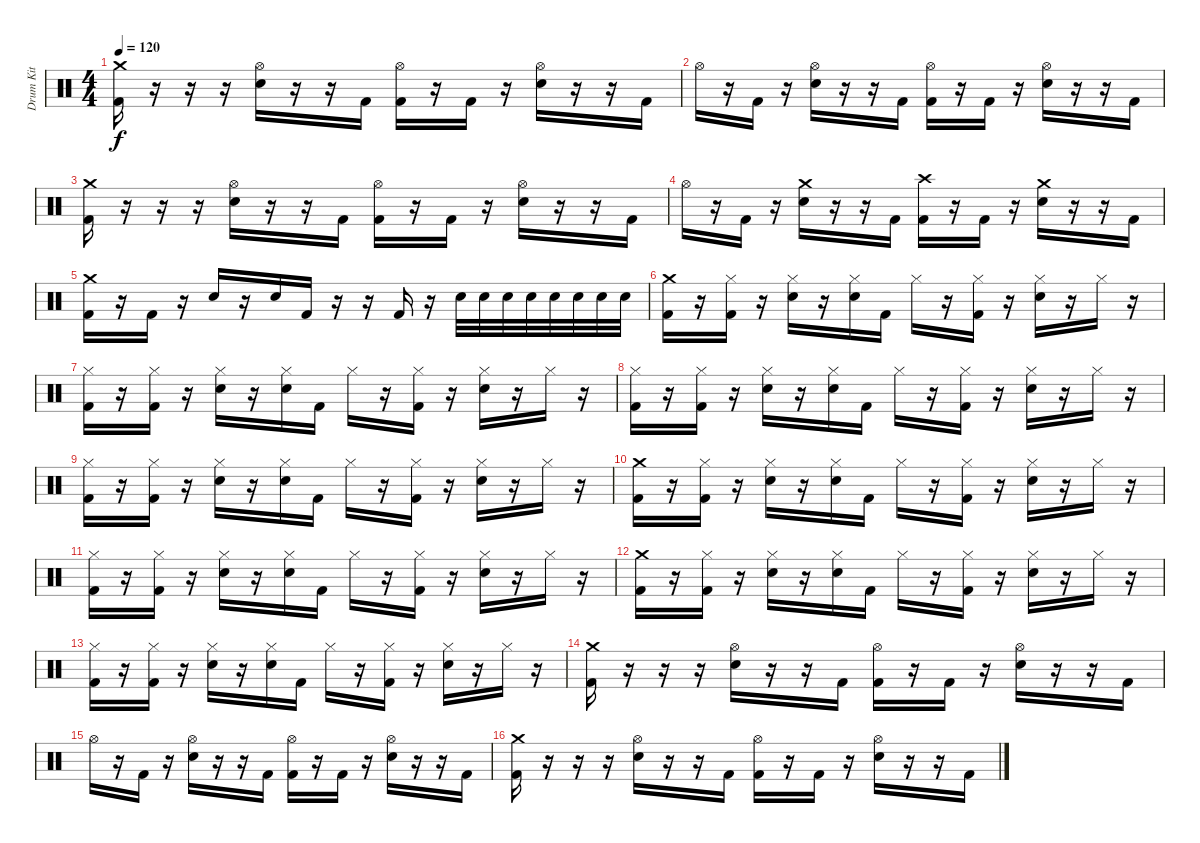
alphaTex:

\track ("Drum Kit" "Drum Kit") {instrument percussion}
\staff {score}
\articulation defaults
\ts (4 4)
\tempo 120
\clef neutral
\ks c
("Crash medium (hit)" "Kick (hit) 2").16{dy f} r.16 r.16 r.16 ("Hi-Hat (open)" "Snare (hit) 2").16 r.16 r.16 "Kick (hit) 2".16 ("Hi-Hat (open)" "Kick (hit) 2").16 r.16 "Kick (hit) 2".16 r.16 ("Hi-Hat (open)" "Snare (hit) 2").16 r.16 r.16 "Kick (hit) 2".16 |
"Hi-Hat (open)".16 r.16 "Kick (hit) 2".16 r.16 ("Hi-Hat (open)" "Snare (hit) 2").16 r.16 r.16 "Kick (hit) 2".16 ("Hi-Hat (open)" "Kick (hit) 2").16 r.16 "Kick (hit) 2".16 r.16 ("Hi-Hat (open)" "Snare (hit) 2").16 r.16 r.16 "Kick (hit) 2".16 |
("Crash medium (hit)" "Kick (hit) 2").16 r.16 r.16 r.16 ("Hi-Hat (open)" "Snare (hit) 2").16 r.16 r.16 "Kick (hit) 2".16 ("Hi-Hat (open)" "Kick (hit) 2").16 r.16 "Kick (hit) 2".16 r.16 ("Hi-Hat (open)" "Snare (hit) 2").16 r.16 r.16 "Kick (hit) 2".16 |
"Hi-Hat (open)".16 r.16 "Kick (hit) 2".16 r.16 ("Crash medium (hit)" "Snare (hit) 2").16 r.16 r.16 "Kick (hit) 2".16 ("Crash high (hit)" "Kick (hit) 2").16 r.16 "Kick (hit) 2".16 r.16 ("Crash medium (hit)" "Snare (hit) 2").16 r.16 r.16 "Kick (hit) 2".16 |
("Crash medium (hit)" "Kick (hit) 2").16 r.16 "Kick (hit) 2".16 r.16 "Snare (hit) 2".16 r.16 "Snare (hit) 2".16 "Kick (hit) 2".16 r.16 r.16 "Kick (hit) 2".16 r.16 "Snare (hit) 2".32 "Snare (hit) 2".32 "Snare (hit) 2".32 "Snare (hit) 2".32 "Snare (hit) 2".32 "Snare (hit) 2".32 "Snare (hit) 2".32 "Snare (hit) 2".32 |
("Crash medium (hit)" "Kick (hit) 2").16 r.16 ("Hi-Hat (closed)" "Kick (hit) 2").16 r.16 ("Hi-Hat (closed)" "Snare (hit) 2").16 r.16 ("Hi-Hat (closed)" "Snare (hit) 2").16 "Kick (hit) 2".16 "Hi-Hat (closed)".16 r.16 ("Hi-Hat (closed)" "Kick (hit) 2").16 r.16 ("Hi-Hat (closed)" "Snare (hit) 2").16 r.16 "Hi-Hat (closed)".16 r.16 |
("Hi-Hat (closed)" "Kick (hit) 2").16 r.16 ("Hi-Hat (closed)" "Kick (hit) 2").16 r.16 ("Hi-Hat (closed)" "Snare (hit) 2").16 r.16 ("Hi-Hat (closed)" "Snare (hit) 2").16 "Kick (hit) 2".16 "Hi-Hat (closed)".16 r.16 ("Hi-Hat (closed)" "Kick (hit) 2").16 r.16 ("Hi-Hat (closed)" "Snare (hit) 2").16 r.16 "Hi-Hat (closed)".16 r.16 |
("Hi-Hat (closed)" "Kick (hit) 2").16 r.16 ("Hi-Hat (closed)" "Kick (hit) 2").16 r.16 ("Hi-Hat (closed)" "Snare (hit) 2").16 r.16 ("Hi-Hat (closed)" "Snare (hit) 2").16 "Kick (hit) 2".16 "Hi-Hat (closed)".16 r.16 ("Hi-Hat (closed)" "Kick (hit) 2").16 r.16 ("Hi-Hat (closed)" "Snare (hit) 2").16 r.16 "Hi-Hat (closed)".16 r.16 |
("Hi-Hat (closed)" "Kick (hit) 2").16 r.16 ("Hi-Hat (closed)" "Kick (hit) 2").16 r.16 ("Hi-Hat (closed)" "Snare (hit) 2").16 r.16 ("Hi-Hat (closed)" "Snare (hit) 2").16 "Kick (hit) 2".16 "Hi-Hat (closed)".16 r.16 ("Hi-Hat (closed)" "Kick (hit) 2").16 r.16 ("Hi-Hat (closed)" "Snare (hit) 2").16 r.16 "Hi-Hat (closed)".16 r.16 |
("Crash medium (hit)" "Kick (hit) 2").16 r.16 ("Hi-Hat (closed)" "Kick (hit) 2").16 r.16 ("Hi-Hat (closed)" "Snare (hit) 2").16 r.16 ("Hi-Hat (closed)" "Snare (hit) 2").16 "Kick (hit) 2".16 "Hi-Hat (closed)".16 r.16 ("Hi-Hat (closed)" "Kick (hit) 2").16 r.16 ("Hi-Hat (closed)" "Snare (hit) 2").16 r.16 "Hi-Hat (closed)".16 r.16 |
("Hi-Hat (closed)" "Kick (hit) 2").16 r.16 ("Hi-Hat (closed)" "Kick (hit) 2").16 r.16 ("Hi-Hat (closed)" "Snare (hit) 2").16 r.16 ("Hi-Hat (closed)" "Snare (hit) 2").16 "Kick (hit) 2".16 "Hi-Hat (closed)".16 r.16 ("Hi-Hat (closed)" "Kick (hit) 2").16 r.16 ("Hi-Hat (closed)" "Snare (hit) 2").16 r.16 "Hi-Hat (closed)".16 r.16 |
("Crash medium (hit)" "Kick (hit) 2").16 r.16 ("Hi-Hat (closed)" "Kick (hit) 2").16 r.16 ("Hi-Hat (closed)" "Snare (hit) 2").16 r.16 ("Hi-Hat (closed)" "Snare (hit) 2").16 "Kick (hit) 2".16 "Hi-Hat (closed)".16 r.16 ("Hi-Hat (closed)" "Kick (hit) 2").16 r.16 ("Hi-Hat (closed)" "Snare (hit) 2").16 r.16 "Hi-Hat (closed)".16 r.16 |
("Hi-Hat (closed)" "Kick (hit) 2").16 r.16 ("Hi-Hat (closed)" "Kick (hit) 2").16 r.16 ("Hi-Hat (closed)" "Snare (hit) 2").16 r.16 ("Hi-Hat (closed)" "Snare (hit) 2").16 "Kick (hit) 2".16 "Hi-Hat (closed)".16 r.16 ("Hi-Hat (closed)" "Kick (hit) 2").16 r.16 ("Hi-Hat (closed)" "Snare (hit) 2").16 r.16 "Hi-Hat (closed)".16 r.16 |
("Crash medium (hit)" "Kick (hit) 2").16 r.16 r.16 r.16 ("Hi-Hat (open)" "Snare (hit) 2").16 r.16 r.16 "Kick (hit) 2".16 ("Hi-Hat (open)" "Kick (hit) 2").16 r.16 "Kick (hit) 2".16 r.16 ("Hi-Hat (open)" "Snare (hit) 2").16 r.16 r.16 "Kick (hit) 2".16 |
"Hi-Hat (open)".16 r.16 "Kick (hit) 2".16 r.16 ("Hi-Hat (open)" "Snare (hit) 2").16 r.16 r.16 "Kick (hit) 2".16 ("Hi-Hat (open)" "Kick (hit) 2").16 r.16 "Kick (hit) 2".16 r.16 ("Hi-Hat (open)" "Snare (hit) 2").16 r.16 r.16 "Kick (hit) 2".16 |
("Crash medium (hit)" "Kick (hit) 2").16 r.16 r.16 r.16 ("Hi-Hat (open)" "Snare (hit) 2").16 r.16 r.16 "Kick (hit) 2".16 ("Hi-Hat (open)" "Kick (hit) 2").16 r.16 "Kick (hit) 2".16 r.16 ("Hi-Hat (open)" "Snare (hit) 2").16 r.16 r.16 "Kick (hit) 2".16
